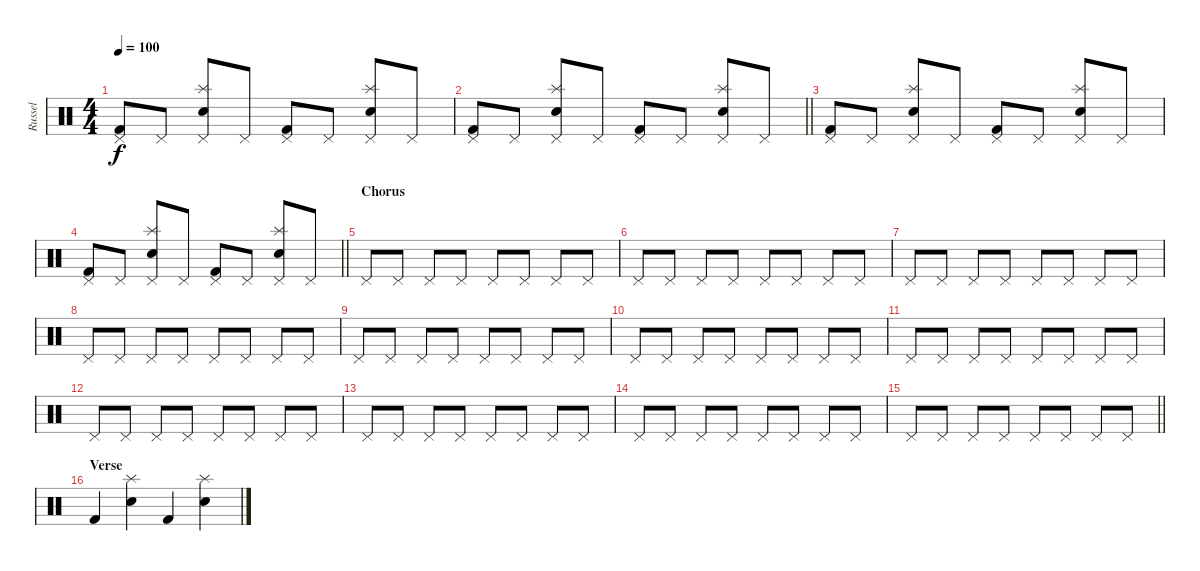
\track ("Russel" "Russel") {instrument percussion}
\staff {score}
\articulation defaults
\ts (4 4)
\tempo 100
\clef neutral
\ks c
("Pedal Hi-Hat (hit)" "Kick (hit) 2").8{dy f} "Pedal Hi-Hat (hit)".8 ("Splash (hit)" "Pedal Hi-Hat (hit)" "Electric Snare (hit)").8 "Pedal Hi-Hat (hit)".8 ("Pedal Hi-Hat (hit)" "Kick (hit) 2").8 "Pedal Hi-Hat (hit)".8 ("Splash (hit)" "Pedal Hi-Hat (hit)" "Electric Snare (hit)").8 "Pedal Hi-Hat (hit)".8 |
\barLineRight lightlight
("Pedal Hi-Hat (hit)" "Kick (hit) 2").8 "Pedal Hi-Hat (hit)".8 ("Splash (hit)" "Pedal Hi-Hat (hit)" "Electric Snare (hit)").8 "Pedal Hi-Hat (hit)".8 ("Pedal Hi-Hat (hit)" "Kick (hit) 2").8 "Pedal Hi-Hat (hit)".8 ("Splash (hit)" "Pedal Hi-Hat (hit)" "Electric Snare (hit)").8 "Pedal Hi-Hat (hit)".8 |
("Pedal Hi-Hat (hit)" "Kick (hit) 2").8 "Pedal Hi-Hat (hit)".8 ("Splash (hit)" "Pedal Hi-Hat (hit)" "Electric Snare (hit)").8 "Pedal Hi-Hat (hit)".8 ("Pedal Hi-Hat (hit)" "Kick (hit) 2").8 "Pedal Hi-Hat (hit)".8 ("Splash (hit)" "Pedal Hi-Hat (hit)" "Electric Snare (hit)").8 "Pedal Hi-Hat (hit)".8 |
\barLineRight lightlight
("Pedal Hi-Hat (hit)" "Kick (hit) 2").8 "Pedal Hi-Hat (hit)".8 ("Splash (hit)" "Pedal Hi-Hat (hit)" "Electric Snare (hit)").8 "Pedal Hi-Hat (hit)".8 ("Pedal Hi-Hat (hit)" "Kick (hit) 2").8 "Pedal Hi-Hat (hit)".8 ("Splash (hit)" "Pedal Hi-Hat (hit)" "Electric Snare (hit)").8 "Pedal Hi-Hat (hit)".8 |
\section ("" "Chorus")
"Pedal Hi-Hat (hit)".8 "Pedal Hi-Hat (hit)".8 "Pedal Hi-Hat (hit)".8 "Pedal Hi-Hat (hit)".8 "Pedal Hi-Hat (hit)".8 "Pedal Hi-Hat (hit)".8 "Pedal Hi-Hat (hit)".8 "Pedal Hi-Hat (hit)".8 |
"Pedal Hi-Hat (hit)".8 "Pedal Hi-Hat (hit)".8 "Pedal Hi-Hat (hit)".8 "Pedal Hi-Hat (hit)".8 "Pedal Hi-Hat (hit)".8 "Pedal Hi-Hat (hit)".8 "Pedal Hi-Hat (hit)".8 "Pedal Hi-Hat (hit)".8 |
"Pedal Hi-Hat (hit)".8 "Pedal Hi-Hat (hit)".8 "Pedal Hi-Hat (hit)".8 "Pedal Hi-Hat (hit)".8 "Pedal Hi-Hat (hit)".8 "Pedal Hi-Hat (hit)".8 "Pedal Hi-Hat (hit)".8 "Pedal Hi-Hat (hit)".8 |
"Pedal Hi-Hat (hit)".8 "Pedal Hi-Hat (hit)".8 "Pedal Hi-Hat (hit)".8 "Pedal Hi-Hat (hit)".8 "Pedal Hi-Hat (hit)".8 "Pedal Hi-Hat (hit)".8 "Pedal Hi-Hat (hit)".8 "Pedal Hi-Hat (hit)".8 |
"Pedal Hi-Hat (hit)".8 "Pedal Hi-Hat (hit)".8 "Pedal Hi-Hat (hit)".8 "Pedal Hi-Hat (hit)".8 "Pedal Hi-Hat (hit)".8 "Pedal Hi-Hat (hit)".8 "Pedal Hi-Hat (hit)".8 "Pedal Hi-Hat (hit)".8 |
"Pedal Hi-Hat (hit)".8 "Pedal Hi-Hat (hit)".8 "Pedal Hi-Hat (hit)".8 "Pedal Hi-Hat (hit)".8 "Pedal Hi-Hat (hit)".8 "Pedal Hi-Hat (hit)".8 "Pedal Hi-Hat (hit)".8 "Pedal Hi-Hat (hit)".8 |
"Pedal Hi-Hat (hit)".8 "Pedal Hi-Hat (hit)".8 "Pedal Hi-Hat (hit)".8 "Pedal Hi-Hat (hit)".8 "Pedal Hi-Hat (hit)".8 "Pedal Hi-Hat (hit)".8 "Pedal Hi-Hat (hit)".8 "Pedal Hi-Hat (hit)".8 |
"Pedal Hi-Hat (hit)".8 "Pedal Hi-Hat (hit)".8 "Pedal Hi-Hat (hit)".8 "Pedal Hi-Hat (hit)".8 "Pedal Hi-Hat (hit)".8 "Pedal Hi-Hat (hit)".8 "Pedal Hi-Hat (hit)".8 "Pedal Hi-Hat (hit)".8 |
"Pedal Hi-Hat (hit)".8 "Pedal Hi-Hat (hit)".8 "Pedal Hi-Hat (hit)".8 "Pedal Hi-Hat (hit)".8 "Pedal Hi-Hat (hit)".8 "Pedal Hi-Hat (hit)".8 "Pedal Hi-Hat (hit)".8 "Pedal Hi-Hat (hit)".8 |
"Pedal Hi-Hat (hit)".8 "Pedal Hi-Hat (hit)".8 "Pedal Hi-Hat (hit)".8 "Pedal Hi-Hat (hit)".8 "Pedal Hi-Hat (hit)".8 "Pedal Hi-Hat (hit)".8 "Pedal Hi-Hat (hit)".8 "Pedal Hi-Hat (hit)".8 |
\barLineRight lightlight "Pedal Hi-Hat (hit)".8 "Pedal Hi-Hat (hit)".8 "Pedal Hi-Hat (hit)".8 "Pedal Hi-Hat (hit)".8 "Pedal Hi-Hat (hit)".8 "Pedal Hi-Hat (hit)".8 "Pedal Hi-Hat (hit)".8 "Pedal Hi-Hat (hit)".8
|
\section ("" "Verse")
"Kick (hit) 2".4 ("Splash (hit)" "Electric Snare (hit)").4 "Kick (hit) 2".4 ("Splash (hit)" "Electric Snare (hit)").4
